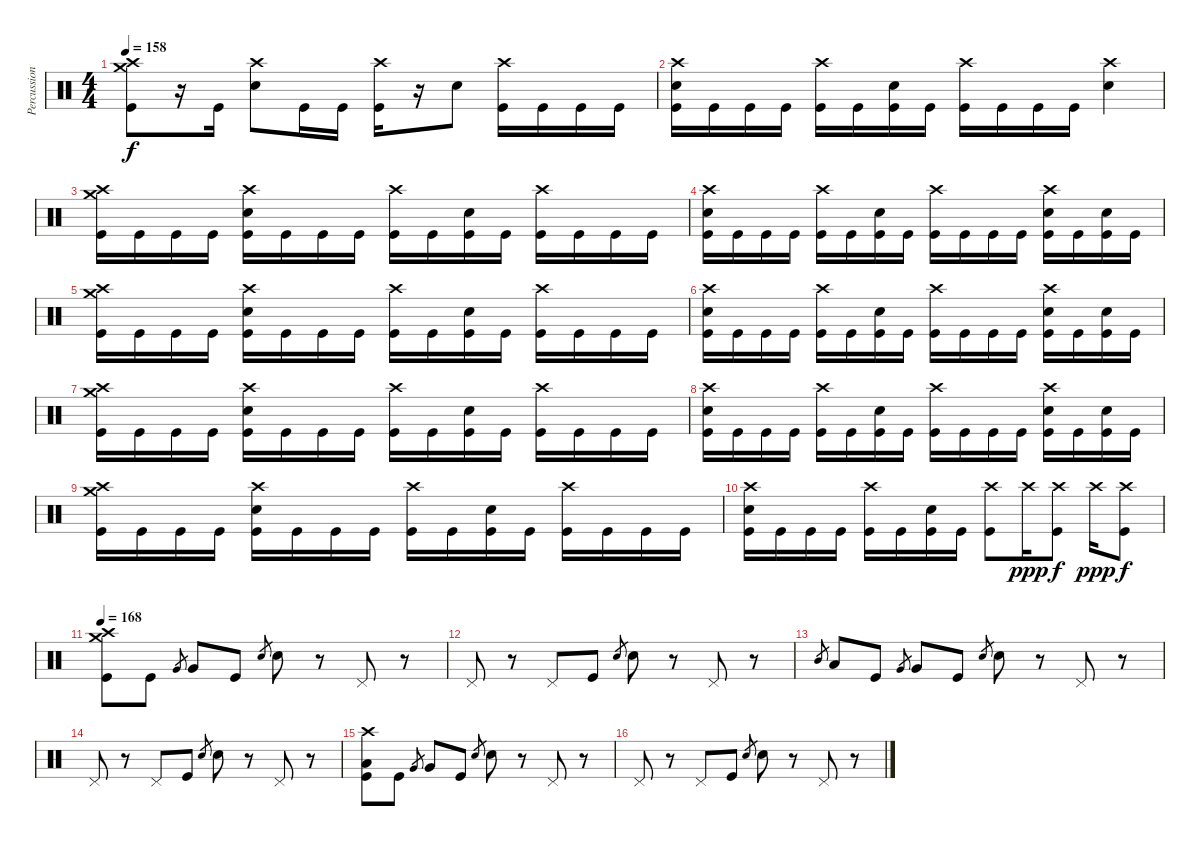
\track ("Percussion" "Percussion") {instrument percussion}
\staff {score}
\articulation defaults
\ts (4 4)
\tempo 158
\clef neutral
\ks c
("Crash high (hit)" "Crash medium (hit)" "Kick (hit)").8{dy f} r.16 "Kick (hit)".16 ("Crash high (hit)" "Snare (hit) 2").8 "Kick (hit)".16 "Kick (hit)".16 ("Crash high (hit)" "Kick (hit)").16 r.16 "Snare (hit) 2".8 ("Crash high (hit)" "Kick (hit)").16 "Kick (hit)".16 "Kick (hit)".16 "Kick (hit)".16 |
("Crash high (hit)" "Snare (hit) 2" "Kick (hit)").16 "Kick (hit)".16 "Kick (hit)".16 "Kick (hit)".16 ("Crash high (hit)" "Kick (hit)").16 "Kick (hit)".16 ("Snare (hit) 2" "Kick (hit)").16 "Kick (hit)".16 ("Crash high (hit)" "Kick (hit)").16 "Kick (hit)".16 "Kick (hit)".16 "Kick (hit)".16 ("Crash high (hit)" "Snare (hit) 2").4 |
("Crash high (hit)" "Crash medium (hit)" "Kick (hit)").16 "Kick (hit)".16 "Kick (hit)".16 "Kick (hit)".16 ("Crash high (hit)" "Snare (hit) 2" "Kick (hit)").16 "Kick (hit)".16 "Kick (hit)".16 "Kick (hit)".16 ("Crash high (hit)" "Kick (hit)").16 "Kick (hit)".16 ("Snare (hit) 2" "Kick (hit)").16 "Kick (hit)".16 ("Crash high (hit)" "Kick (hit)").16 "Kick (hit)".16 "Kick (hit)".16 "Kick (hit)".16 |
("Crash high (hit)" "Snare (hit) 2" "Kick (hit)").16 "Kick (hit)".16 "Kick (hit)".16 "Kick (hit)".16 ("Crash high (hit)" "Kick (hit)").16 "Kick (hit)".16 ("Snare (hit) 2" "Kick (hit)").16 "Kick (hit)".16 ("Crash high (hit)" "Kick (hit)").16 "Kick (hit)".16 "Kick (hit)".16 "Kick (hit)".16 ("Crash high (hit)" "Kick (hit)" "Snare (hit) 2").16 "Kick (hit)".16 ("Snare (hit) 2" "Kick (hit)").16 "Kick (hit)".16 |
("Crash high (hit)" "Crash medium (hit)" "Kick (hit)").16 "Kick (hit)".16 "Kick (hit)".16 "Kick (hit)".16 ("Crash high (hit)" "Snare (hit) 2" "Kick (hit)").16 "Kick (hit)".16 "Kick (hit)".16 "Kick (hit)".16 ("Crash high (hit)" "Kick (hit)").16 "Kick (hit)".16 ("Snare (hit) 2" "Kick (hit)").16 "Kick (hit)".16 ("Crash high (hit)" "Kick (hit)").16 "Kick (hit)".16 "Kick (hit)".16 "Kick (hit)".16 |
("Crash high (hit)" "Snare (hit) 2" "Kick (hit)").16 "Kick (hit)".16 "Kick (hit)".16 "Kick (hit)".16 ("Crash high (hit)" "Kick (hit)").16 "Kick (hit)".16 ("Snare (hit) 2" "Kick (hit)").16 "Kick (hit)".16 ("Crash high (hit)" "Kick (hit)").16 "Kick (hit)".16 "Kick (hit)".16 "Kick (hit)".16 ("Crash high (hit)" "Kick (hit)" "Snare (hit) 2").16 "Kick (hit)".16 ("Snare (hit) 2" "Kick (hit)").16 "Kick (hit)".16 |
("Crash high (hit)" "Crash medium (hit)" "Kick (hit)").16 "Kick (hit)".16 "Kick (hit)".16 "Kick (hit)".16 ("Crash high (hit)" "Snare (hit) 2" "Kick (hit)").16 "Kick (hit)".16 "Kick (hit)".16 "Kick (hit)".16 ("Crash high (hit)" "Kick (hit)").16 "Kick (hit)".16 ("Snare (hit) 2" "Kick (hit)").16 "Kick (hit)".16 ("Crash high (hit)" "Kick (hit)").16 "Kick (hit)".16 "Kick (hit)".16 "Kick (hit)".16 |
("Crash high (hit)" "Snare (hit) 2" "Kick (hit)").16 "Kick (hit)".16 "Kick (hit)".16 "Kick (hit)".16 ("Crash high (hit)" "Kick (hit)").16 "Kick (hit)".16 ("Snare (hit) 2" "Kick (hit)").16 "Kick (hit)".16 ("Crash high (hit)" "Kick (hit)").16 "Kick (hit)".16 "Kick (hit)".16 "Kick (hit)".16 ("Crash high (hit)" "Kick (hit)" "Snare (hit) 2").16 "Kick (hit)".16 ("Snare (hit) 2" "Kick (hit)").16 "Kick (hit)".16 |
("Crash high (hit)" "Crash medium (hit)" "Kick (hit)").16 "Kick (hit)".16 "Kick (hit)".16 "Kick (hit)".16 ("Crash high (hit)" "Snare (hit) 2" "Kick (hit)").16 "Kick (hit)".16 "Kick (hit)".16 "Kick (hit)".16 ("Crash high (hit)" "Kick (hit)").16 "Kick (hit)".16 ("Snare (hit) 2" "Kick (hit)").16 "Kick (hit)".16 ("Crash high (hit)" "Kick (hit)").16 "Kick (hit)".16 "Kick (hit)".16 "Kick (hit)".16 |
("Crash high (hit)" "Snare (hit) 2" "Kick (hit)").16 "Kick (hit)".16 "Kick (hit)".16 "Kick (hit)".16 ("Crash high (hit)" "Kick (hit)").16 "Kick (hit)".16 ("Snare (hit) 2" "Kick (hit)").16 "Kick (hit)".16 ("Crash high (hit)" "Kick (hit)").8 "Crash high (hit)".16{dy ppp} ("Crash high (hit)" "Kick (hit)").8{dy f} "Crash high (hit)".16{dy ppp} ("Crash high (hit)" "Kick (hit)").8{dy f} |
\tempo 168
("Crash high (hit)" "Crash medium (hit)" "Kick (hit)").8 "Kick (hit)".8 "Very Low Tom (hit)".8{gr} "Very Low Tom (hit)".8 "Kick (hit)".8 "Snare (hit) 2".8{gr} "Snare (hit) 2".8 r.8 "Pedal Hi-Hat (hit)".8 r.8 |
"Pedal Hi-Hat (hit)".8 r.8 "Pedal Hi-Hat (hit)".8 "Kick (hit)".8 "Snare (hit) 2".8{gr} "Snare (hit) 2".8 r.8 "Pedal Hi-Hat (hit)".8 r.8 |
"Mid Tom (hit)".8{gr} "Low Tom (hit)".8 "Kick (hit)".8 "Very Low Tom (hit)".8{gr} "Very Low Tom (hit)".8 "Kick (hit)".8 "Snare (hit) 2".8{gr} "Snare (hit) 2".8 r.8 "Pedal Hi-Hat (hit)".8 r.8 |
"Pedal Hi-Hat (hit)".8 r.8 "Pedal Hi-Hat (hit)".8 "Kick (hit)".8 "Snare (hit) 2".8{gr} "Snare (hit) 2".8 r.8 "Pedal Hi-Hat (hit)".8 r.8 |
("Crash high (hit)" "Low Tom (hit)" "Kick (hit)").8 "Kick (hit)".8 "Very Low Tom (hit)".8{gr} "Very Low Tom (hit)".8 "Kick (hit)".8 "Snare (hit) 2".8{gr} "Snare (hit) 2".8 r.8 "Pedal Hi-Hat (hit)".8 r.8 |
"Pedal Hi-Hat (hit)".8 r.8 "Pedal Hi-Hat (hit)".8 "Kick (hit)".8 "Snare (hit) 2".8{gr} "Snare (hit) 2".8 r.8 "Pedal Hi-Hat (hit)".8 r.8
